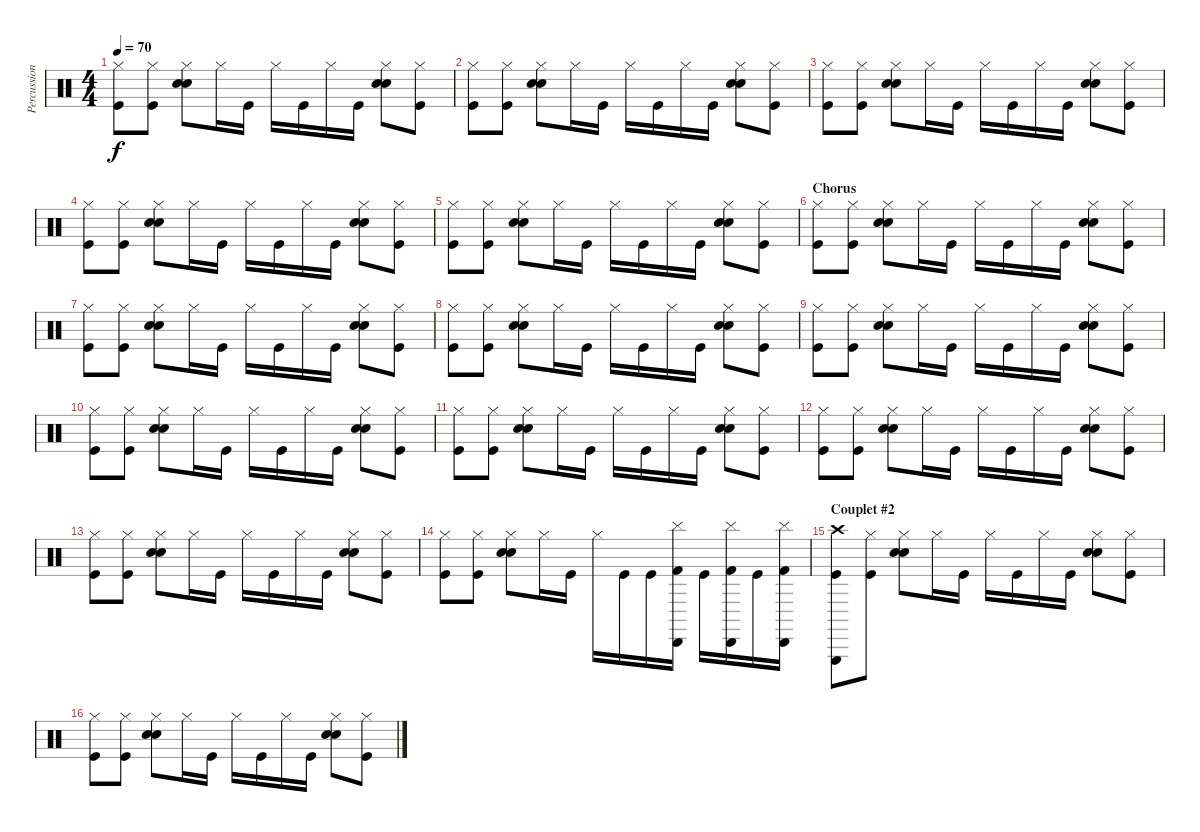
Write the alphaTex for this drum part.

\track ("Percussion" "Percussion") {instrument percussion}
\staff {score}
\articulation defaults
\ts (4 4)
\tempo 70
\clef neutral
\ks c
("Kick (hit)" "Hi-Hat (closed)").8{dy f} ("Kick (hit)" "Hi-Hat (closed)").8 ("Snare (hit) 2" "Electric Snare (hit)" "Hi-Hat (closed)").8 "Hi-Hat (closed)".16 "Kick (hit)".16 "Hi-Hat (closed)".16 "Kick (hit)".16 "Hi-Hat (closed)".16 "Kick (hit)".16 ("Snare (hit) 2" "Electric Snare (hit)" "Hi-Hat (closed)").8 ("Kick (hit)" "Hi-Hat (closed)").8 |
("Kick (hit)" "Hi-Hat (closed)").8 ("Kick (hit)" "Hi-Hat (closed)").8 ("Snare (hit) 2" "Electric Snare (hit)" "Hi-Hat (closed)").8 "Hi-Hat (closed)".16 "Kick (hit)".16 "Hi-Hat (closed)".16 "Kick (hit)".16 "Hi-Hat (closed)".16 "Kick (hit)".16 ("Snare (hit) 2" "Electric Snare (hit)" "Hi-Hat (closed)").8 ("Kick (hit)" "Hi-Hat (closed)").8 |
("Kick (hit)" "Hi-Hat (closed)").8 ("Kick (hit)" "Hi-Hat (closed)").8 ("Snare (hit) 2" "Electric Snare (hit)" "Hi-Hat (closed)").8 "Hi-Hat (closed)".16 "Kick (hit)".16 "Hi-Hat (closed)".16 "Kick (hit)".16 "Hi-Hat (closed)".16 "Kick (hit)".16 ("Snare (hit) 2" "Electric Snare (hit)" "Hi-Hat (closed)").8 ("Kick (hit)" "Hi-Hat (closed)").8 |
("Kick (hit)" "Hi-Hat (closed)").8 ("Kick (hit)" "Hi-Hat (closed)").8 ("Snare (hit) 2" "Electric Snare (hit)" "Hi-Hat (closed)").8 "Hi-Hat (closed)".16 "Kick (hit)".16 "Hi-Hat (closed)".16 "Kick (hit)".16 "Hi-Hat (closed)".16 "Kick (hit)".16 ("Snare (hit) 2" "Electric Snare (hit)" "Hi-Hat (closed)").8 ("Kick (hit)" "Hi-Hat (closed)").8 |
("Kick (hit)" "Hi-Hat (closed)").8 ("Kick (hit)" "Hi-Hat (closed)").8 ("Snare (hit) 2" "Electric Snare (hit)" "Hi-Hat (closed)").8 "Hi-Hat (closed)".16 "Kick (hit)".16 "Hi-Hat (closed)".16 "Kick (hit)".16 "Hi-Hat (closed)".16 "Kick (hit)".16 ("Snare (hit) 2" "Electric Snare (hit)" "Hi-Hat (closed)").8 ("Kick (hit)" "Hi-Hat (closed)").8 |
\section ("" "Chorus")
("Kick (hit)" "Hi-Hat (closed)").8 ("Kick (hit)" "Hi-Hat (closed)").8 ("Snare (hit) 2" "Electric Snare (hit)" "Hi-Hat (closed)").8 "Hi-Hat (closed)".16 "Kick (hit)".16 "Hi-Hat (closed)".16 "Kick (hit)".16 "Hi-Hat (closed)".16 "Kick (hit)".16 ("Snare (hit) 2" "Electric Snare (hit)" "Hi-Hat (closed)").8 ("Kick (hit)" "Hi-Hat (closed)").8 |
("Kick (hit)" "Hi-Hat (closed)").8 ("Kick (hit)" "Hi-Hat (closed)").8 ("Snare (hit) 2" "Electric Snare (hit)" "Hi-Hat (closed)").8 "Hi-Hat (closed)".16 "Kick (hit)".16 "Hi-Hat (closed)".16 "Kick (hit)".16 "Hi-Hat (closed)".16 "Kick (hit)".16 ("Snare (hit) 2" "Electric Snare (hit)" "Hi-Hat (closed)").8 ("Kick (hit)" "Hi-Hat (closed)").8 |
("Kick (hit)" "Hi-Hat (closed)").8 ("Kick (hit)" "Hi-Hat (closed)").8 ("Snare (hit) 2" "Electric Snare (hit)" "Hi-Hat (closed)").8 "Hi-Hat (closed)".16 "Kick (hit)".16 "Hi-Hat (closed)".16 "Kick (hit)".16 "Hi-Hat (closed)".16 "Kick (hit)".16 ("Snare (hit) 2" "Electric Snare (hit)" "Hi-Hat (closed)").8 ("Kick (hit)" "Hi-Hat (closed)").8 |
("Kick (hit)" "Hi-Hat (closed)").8 ("Kick (hit)" "Hi-Hat (closed)").8 ("Snare (hit) 2" "Electric Snare (hit)" "Hi-Hat (closed)").8 "Hi-Hat (closed)".16 "Kick (hit)".16 "Hi-Hat (closed)".16 "Kick (hit)".16 "Hi-Hat (closed)".16 "Kick (hit)".16 ("Snare (hit) 2" "Electric Snare (hit)" "Hi-Hat (closed)").8 ("Kick (hit)" "Hi-Hat (closed)").8 |
("Kick (hit)" "Hi-Hat (closed)").8 ("Kick (hit)" "Hi-Hat (closed)").8 ("Snare (hit) 2" "Electric Snare (hit)" "Hi-Hat (closed)").8 "Hi-Hat (closed)".16 "Kick (hit)".16 "Hi-Hat (closed)".16 "Kick (hit)".16 "Hi-Hat (closed)".16 "Kick (hit)".16 ("Snare (hit) 2" "Electric Snare (hit)" "Hi-Hat (closed)").8 ("Kick (hit)" "Hi-Hat (closed)").8 |
("Kick (hit)" "Hi-Hat (closed)").8 ("Kick (hit)" "Hi-Hat (closed)").8 ("Snare (hit) 2" "Electric Snare (hit)" "Hi-Hat (closed)").8 "Hi-Hat (closed)".16 "Kick (hit)".16 "Hi-Hat (closed)".16 "Kick (hit)".16 "Hi-Hat (closed)".16 "Kick (hit)".16 ("Snare (hit) 2" "Electric Snare (hit)" "Hi-Hat (closed)").8 ("Kick (hit)" "Hi-Hat (closed)").8 |
("Kick (hit)" "Hi-Hat (closed)").8 ("Kick (hit)" "Hi-Hat (closed)").8 ("Snare (hit) 2" "Electric Snare (hit)" "Hi-Hat (closed)").8 "Hi-Hat (closed)".16 "Kick (hit)".16 "Hi-Hat (closed)".16 "Kick (hit)".16 "Hi-Hat (closed)".16 "Kick (hit)".16 ("Snare (hit) 2" "Electric Snare (hit)" "Hi-Hat (closed)").8 ("Kick (hit)" "Hi-Hat (closed)").8 |
("Kick (hit)" "Hi-Hat (closed)").8 ("Kick (hit)" "Hi-Hat (closed)").8 ("Snare (hit) 2" "Electric Snare (hit)" "Hi-Hat (closed)").8 "Hi-Hat (closed)".16 "Kick (hit)".16 "Hi-Hat (closed)".16 "Kick (hit)".16 "Hi-Hat (closed)".16 "Kick (hit)".16 ("Snare (hit) 2" "Electric Snare (hit)" "Hi-Hat (closed)").8 ("Kick (hit)" "Hi-Hat (closed)").8 |
("Kick (hit)" "Hi-Hat (closed)").8 ("Kick (hit)" "Hi-Hat (closed)").8 ("Snare (hit) 2" "Electric Snare (hit)" "Hi-Hat (closed)").8 "Hi-Hat (closed)".16 "Kick (hit)".16 "Hi-Hat (closed)".16 "Kick (hit)".16 "Kick (hit)".16 ("Kick (hit) 2" "Cabasa (hit)" "Cymbal (hit)").16 "Kick (hit)".16 ("Kick (hit) 2" "Cabasa (hit)" "Cymbal (hit)").16 "Kick (hit)".16 ("Kick (hit) 2" "Cabasa (hit)" "Cymbal (hit)").16 |
\section ("" "Couplet #2")
("Kick (hit)" "Triangle (hit)" "Crash high (hit)").8 ("Kick (hit)" "Hi-Hat (closed)").8 ("Snare (hit) 2" "Electric Snare (hit)" "Hi-Hat (closed)").8 "Hi-Hat (closed)".16 "Kick (hit)".16 "Hi-Hat (closed)".16 "Kick (hit)".16 "Hi-Hat (closed)".16 "Kick (hit)".16 ("Snare (hit) 2" "Electric Snare (hit)" "Hi-Hat (closed)").8 ("Kick (hit)" "Hi-Hat (closed)").8 |
("Kick (hit)" "Hi-Hat (closed)").8 ("Kick (hit)" "Hi-Hat (closed)").8 ("Snare (hit) 2" "Electric Snare (hit)" "Hi-Hat (closed)").8 "Hi-Hat (closed)".16 "Kick (hit)".16 "Hi-Hat (closed)".16 "Kick (hit)".16 "Hi-Hat (closed)".16 "Kick (hit)".16 ("Snare (hit) 2" "Electric Snare (hit)" "Hi-Hat (closed)").8 ("Kick (hit)" "Hi-Hat (closed)").8
